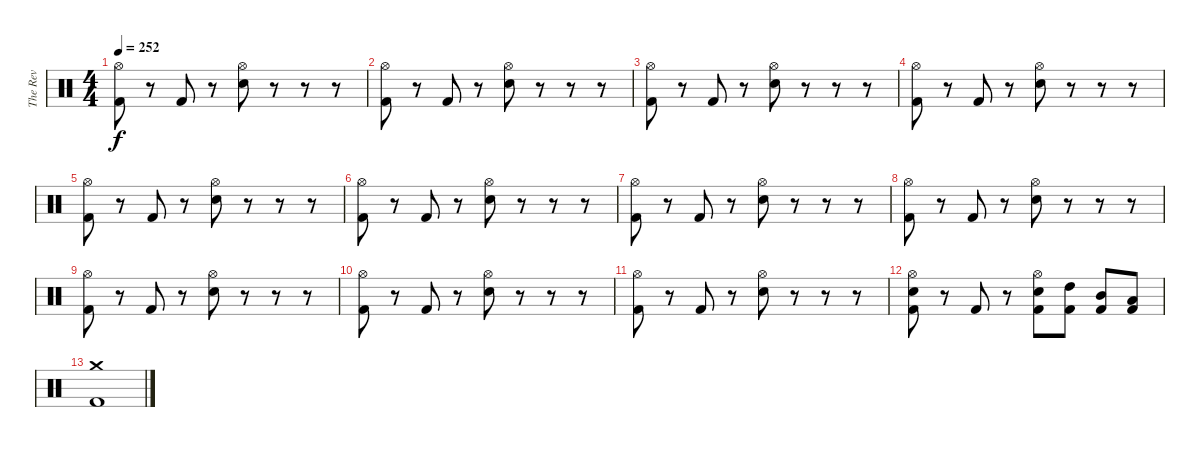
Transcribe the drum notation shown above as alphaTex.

\track ("The Rev" "The Rev") {instrument percussion}
\staff {score}
\articulation defaults
\ts (4 4)
\tempo 252
\clef neutral
\ks c
("Hi-Hat (open)" "Kick (hit) 2").8{dy f} r.8 "Kick (hit) 2".8 r.8 ("Hi-Hat (open)" "Electric Snare (hit)").8 r.8 r.8 r.8 |
("Hi-Hat (open)" "Kick (hit) 2").8 r.8 "Kick (hit) 2".8 r.8 ("Hi-Hat (open)" "Electric Snare (hit)").8 r.8 r.8 r.8 |
("Hi-Hat (open)" "Kick (hit) 2").8 r.8 "Kick (hit) 2".8 r.8 ("Hi-Hat (open)" "Electric Snare (hit)").8 r.8 r.8 r.8 |
("Hi-Hat (open)" "Kick (hit) 2").8 r.8 "Kick (hit) 2".8 r.8 ("Hi-Hat (open)" "Electric Snare (hit)").8 r.8 r.8 r.8 |
("Hi-Hat (open)" "Kick (hit) 2").8 r.8 "Kick (hit) 2".8 r.8 ("Hi-Hat (open)" "Electric Snare (hit)").8 r.8 r.8 r.8 |
("Hi-Hat (open)" "Kick (hit) 2").8 r.8 "Kick (hit) 2".8 r.8 ("Hi-Hat (open)" "Electric Snare (hit)").8 r.8 r.8 r.8 |
("Hi-Hat (open)" "Kick (hit) 2").8 r.8 "Kick (hit) 2".8 r.8 ("Hi-Hat (open)" "Electric Snare (hit)").8 r.8 r.8 r.8 |
("Hi-Hat (open)" "Kick (hit) 2").8 r.8 "Kick (hit) 2".8 r.8 ("Hi-Hat (open)" "Electric Snare (hit)").8 r.8 r.8 r.8 |
("Hi-Hat (open)" "Kick (hit) 2").8 r.8 "Kick (hit) 2".8 r.8 ("Hi-Hat (open)" "Electric Snare (hit)").8 r.8 r.8 r.8 |
("Hi-Hat (open)" "Kick (hit) 2").8 r.8 "Kick (hit) 2".8 r.8 ("Hi-Hat (open)" "Electric Snare (hit)").8 r.8 r.8 r.8 |
("Hi-Hat (open)" "Kick (hit) 2").8 r.8 "Kick (hit) 2".8 r.8 ("Hi-Hat (open)" "Electric Snare (hit)").8 r.8 r.8 r.8 |
("Hi-Hat (open)" "Electric Snare (hit)" "Kick (hit) 2").8 r.8 "Kick (hit) 2".8 r.8 ("Hi-Hat (open)" "Electric Snare (hit)" "Kick (hit) 2").8 ("High Tom (hit)" "Kick (hit) 2").8 ("Mid Tom (hit)" "Kick (hit) 2").8 ("Low Tom (hit)" "Kick (hit) 2").8 |
("Crash medium (hit)" "Kick (hit) 2").1
